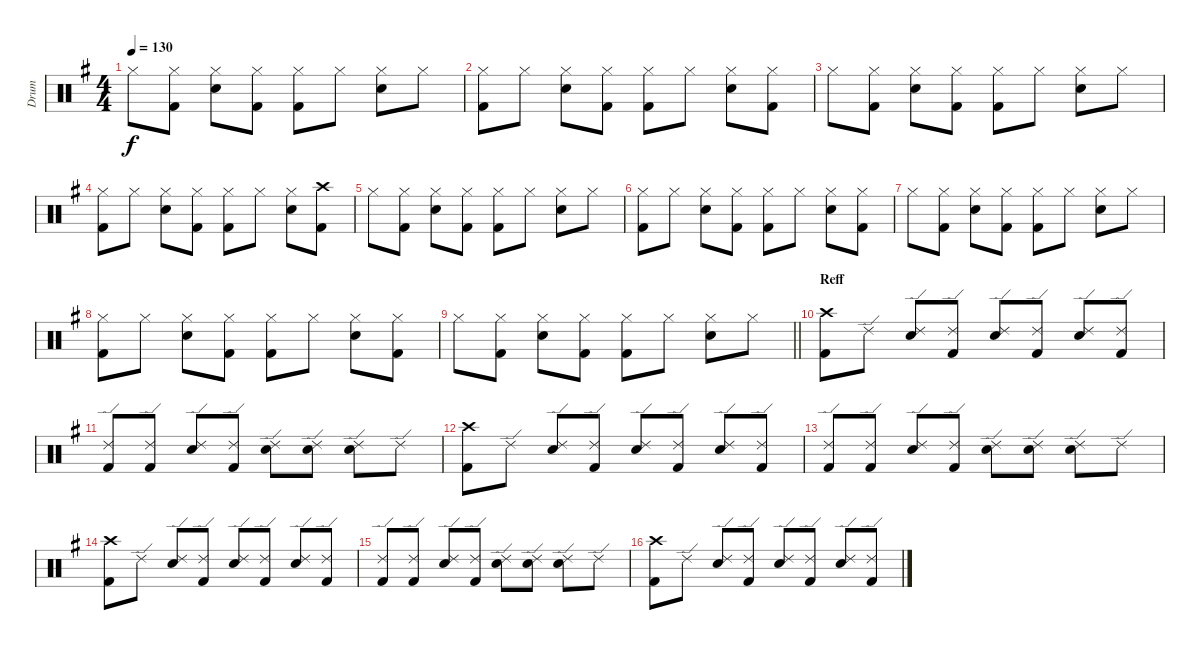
\track ("Drum" "Drum") {instrument percussion}
\staff {score}
\articulation defaults
\ts (4 4)
\tempo 130
\clef neutral
\ks g "Hi-Hat (closed)".8{dy f}
("Kick (hit) 2" "Hi-Hat (closed)").8 ("Hi-Hat (closed)" "Electric Snare (hit)").8 ("Kick (hit) 2" "Hi-Hat (closed)").8 ("Kick (hit) 2" "Hi-Hat (closed)").8 "Hi-Hat (closed)".8 ("Hi-Hat (closed)" "Electric Snare (hit)").8 "Hi-Hat (closed)".8 |
("Kick (hit) 2" "Hi-Hat (closed)").8 "Hi-Hat (closed)".8 ("Hi-Hat (closed)" "Electric Snare (hit)").8 ("Kick (hit) 2" "Hi-Hat (closed)").8 ("Kick (hit) 2" "Hi-Hat (closed)").8 "Hi-Hat (closed)".8 ("Hi-Hat (closed)" "Electric Snare (hit)").8 ("Kick (hit) 2" "Hi-Hat (closed)").8 |
"Hi-Hat (closed)".8 ("Kick (hit) 2" "Hi-Hat (closed)").8 ("Hi-Hat (closed)" "Electric Snare (hit)").8 ("Kick (hit) 2" "Hi-Hat (closed)").8 ("Kick (hit) 2" "Hi-Hat (closed)").8 "Hi-Hat (closed)".8 ("Hi-Hat (closed)" "Electric Snare (hit)").8 "Hi-Hat (closed)".8 |
("Kick (hit) 2" "Hi-Hat (closed)").8 "Hi-Hat (closed)".8 ("Hi-Hat (closed)" "Electric Snare (hit)").8 ("Kick (hit) 2" "Hi-Hat (closed)").8 ("Kick (hit) 2" "Hi-Hat (closed)").8 "Hi-Hat (closed)".8 ("Hi-Hat (closed)" "Electric Snare (hit)").8 ("Kick (hit) 2" "Crash high (hit)").8 |
"Hi-Hat (closed)".8 ("Kick (hit) 2" "Hi-Hat (closed)").8 ("Hi-Hat (closed)" "Electric Snare (hit)").8 ("Kick (hit) 2" "Hi-Hat (closed)").8 ("Kick (hit) 2" "Hi-Hat (closed)").8 "Hi-Hat (closed)".8 ("Hi-Hat (closed)" "Electric Snare (hit)").8 "Hi-Hat (closed)".8 |
("Kick (hit) 2" "Hi-Hat (closed)").8 "Hi-Hat (closed)".8 ("Hi-Hat (closed)" "Electric Snare (hit)").8 ("Kick (hit) 2" "Hi-Hat (closed)").8 ("Kick (hit) 2" "Hi-Hat (closed)").8 "Hi-Hat (closed)".8 ("Hi-Hat (closed)" "Electric Snare (hit)").8 ("Kick (hit) 2" "Hi-Hat (closed)").8 |
"Hi-Hat (closed)".8 ("Kick (hit) 2" "Hi-Hat (closed)").8 ("Hi-Hat (closed)" "Electric Snare (hit)").8 ("Kick (hit) 2" "Hi-Hat (closed)").8 ("Kick (hit) 2" "Hi-Hat (closed)").8 "Hi-Hat (closed)".8 ("Hi-Hat (closed)" "Electric Snare (hit)").8 "Hi-Hat (closed)".8 |
("Kick (hit) 2" "Hi-Hat (closed)").8 "Hi-Hat (closed)".8 ("Hi-Hat (closed)" "Electric Snare (hit)").8 ("Kick (hit) 2" "Hi-Hat (closed)").8 ("Kick (hit) 2" "Hi-Hat (closed)").8 "Hi-Hat (closed)".8 ("Hi-Hat (closed)" "Electric Snare (hit)").8 ("Kick (hit) 2" "Hi-Hat (closed)").8 |
\barLineRight lightlight "Hi-Hat (closed)".8
("Kick (hit) 2" "Hi-Hat (closed)").8 ("Hi-Hat (closed)" "Electric Snare (hit)").8 ("Kick (hit) 2" "Hi-Hat (closed)").8 ("Kick (hit) 2" "Hi-Hat (closed)").8 "Hi-Hat (closed)".8 ("Hi-Hat (closed)" "Electric Snare (hit)").8 "Hi-Hat (closed)".8 |
\section ("" "Reff")
("Kick (hit) 2" "Crash high (hit)").8 "Ride (edge) 2".8 ("Ride (edge) 2" "Electric Snare (hit)").8 ("Ride (edge) 2" "Kick (hit) 2").8 ("Electric Snare (hit)" "Ride (edge) 2").8 ("Ride (edge) 2" "Kick (hit) 2").8 ("Electric Snare (hit)" "Ride (edge) 2").8 ("Kick (hit) 2" "Ride (edge) 2").8 |
("Kick (hit) 2" "Ride (edge) 2").8 ("Kick (hit) 2" "Ride (edge) 2").8 ("Ride (edge) 2" "Electric Snare (hit)").8 ("Ride (edge) 2" "Kick (hit) 2").8 ("Electric Snare (hit)" "Ride (edge) 2").8 ("Ride (edge) 2" "Electric Snare (hit)").8 ("Electric Snare (hit)" "Ride (edge) 2").8 "Ride (edge) 2".8 |
("Kick (hit) 2" "Crash high (hit)").8 "Ride (edge) 2".8 ("Ride (edge) 2" "Electric Snare (hit)").8 ("Ride (edge) 2" "Kick (hit) 2").8 ("Electric Snare (hit)" "Ride (edge) 2").8 ("Ride (edge) 2" "Kick (hit) 2").8 ("Electric Snare (hit)" "Ride (edge) 2").8 ("Kick (hit) 2" "Ride (edge) 2").8 |
("Kick (hit) 2" "Ride (edge) 2").8 ("Kick (hit) 2" "Ride (edge) 2").8 ("Ride (edge) 2" "Electric Snare (hit)").8 ("Ride (edge) 2" "Kick (hit) 2").8 ("Electric Snare (hit)" "Ride (edge) 2").8 ("Ride (edge) 2" "Electric Snare (hit)").8 ("Electric Snare (hit)" "Ride (edge) 2").8 "Ride (edge) 2".8 |
("Kick (hit) 2" "Crash high (hit)").8 "Ride (edge) 2".8 ("Ride (edge) 2" "Electric Snare (hit)").8 ("Ride (edge) 2" "Kick (hit) 2").8 ("Electric Snare (hit)" "Ride (edge) 2").8 ("Ride (edge) 2" "Kick (hit) 2").8 ("Electric Snare (hit)" "Ride (edge) 2").8 ("Kick (hit) 2" "Ride (edge) 2").8 |
("Kick (hit) 2" "Ride (edge) 2").8 ("Kick (hit) 2" "Ride (edge) 2").8 ("Ride (edge) 2" "Electric Snare (hit)").8 ("Ride (edge) 2" "Kick (hit) 2").8 ("Electric Snare (hit)" "Ride (edge) 2").8 ("Ride (edge) 2" "Electric Snare (hit)").8 ("Electric Snare (hit)" "Ride (edge) 2").8 "Ride (edge) 2".8 |
("Kick (hit) 2" "Crash high (hit)").8 "Ride (edge) 2".8 ("Ride (edge) 2" "Electric Snare (hit)").8 ("Ride (edge) 2" "Kick (hit) 2").8 ("Electric Snare (hit)" "Ride (edge) 2").8 ("Ride (edge) 2" "Kick (hit) 2").8 ("Electric Snare (hit)" "Ride (edge) 2").8 ("Kick (hit) 2" "Ride (edge) 2").8
